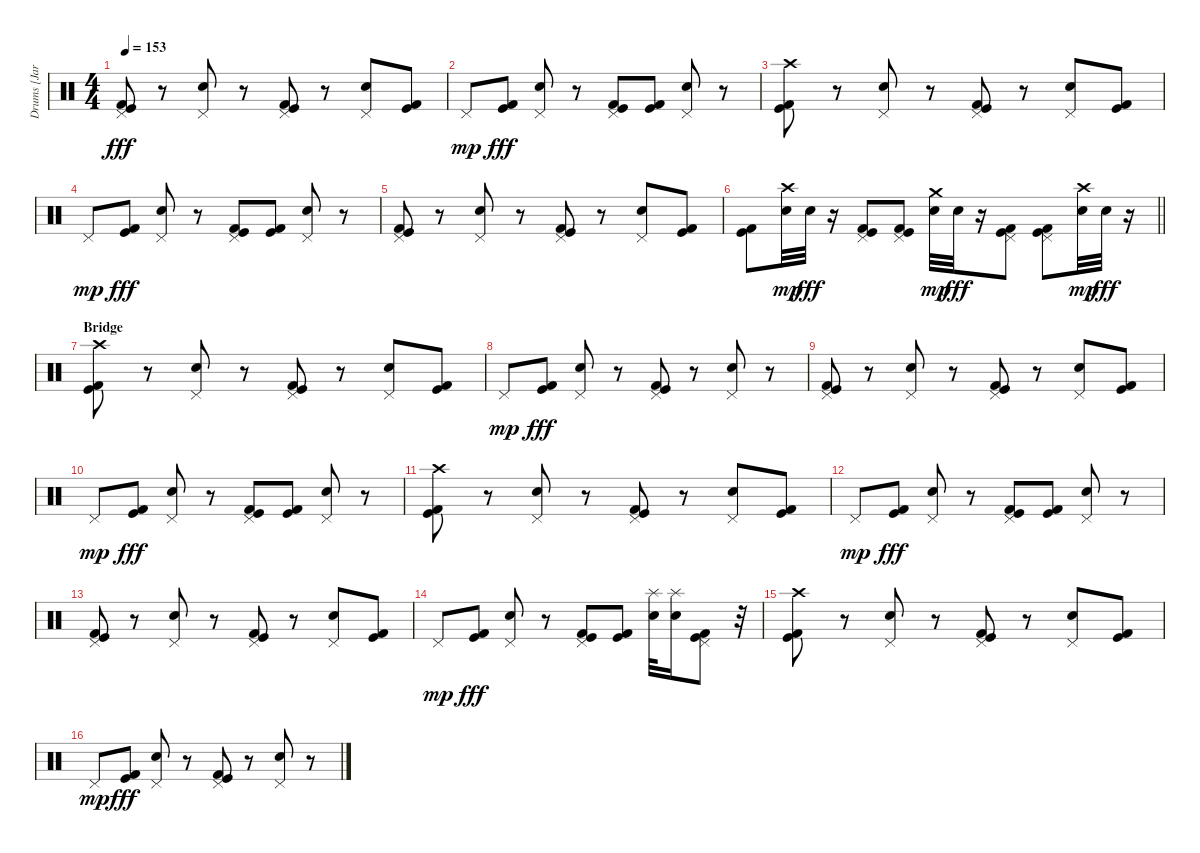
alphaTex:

\track ("Drums [Jari]" "Drums [Jar") {instrument percussion}
\staff {score}
\articulation defaults
\ts (4 4)
\tempo 153
\clef neutral
\ks c
("Kick (hit) 2" "Pedal Hi-Hat (hit)" "Kick (hit)").8{dy fff} r.8 ("Pedal Hi-Hat (hit)" "Electric Snare (hit)").8 r.8 ("Kick (hit) 2" "Pedal Hi-Hat (hit)" "Kick (hit)").8 r.8 ("Pedal Hi-Hat (hit)" "Electric Snare (hit)").8 ("Kick (hit) 2" "Kick (hit)").8 |
"Pedal Hi-Hat (hit)".8{dy mp} ("Kick (hit) 2" "Kick (hit)").8{dy fff} ("Pedal Hi-Hat (hit)" "Electric Snare (hit)").8 r.8 ("Kick (hit) 2" "Pedal Hi-Hat (hit)" "Kick (hit)").8 ("Kick (hit) 2" "Kick (hit)").8 ("Pedal Hi-Hat (hit)" "Electric Snare (hit)").8 r.8 |
("Kick (hit) 2" "Crash high (hit)" "Kick (hit)").8 r.8 ("Pedal Hi-Hat (hit)" "Electric Snare (hit)").8 r.8 ("Kick (hit) 2" "Pedal Hi-Hat (hit)" "Kick (hit)").8 r.8 ("Pedal Hi-Hat (hit)" "Electric Snare (hit)").8 ("Kick (hit) 2" "Kick (hit)").8 |
"Pedal Hi-Hat (hit)".8{dy mp} ("Kick (hit) 2" "Kick (hit)").8{dy fff} ("Pedal Hi-Hat (hit)" "Electric Snare (hit)").8 r.8 ("Kick (hit) 2" "Pedal Hi-Hat (hit)" "Kick (hit)").8 ("Kick (hit) 2" "Kick (hit)").8 ("Pedal Hi-Hat (hit)" "Electric Snare (hit)").8 r.8 |
("Kick (hit) 2" "Pedal Hi-Hat (hit)" "Kick (hit)").8 r.8 ("Pedal Hi-Hat (hit)" "Electric Snare (hit)").8 r.8 ("Kick (hit) 2" "Pedal Hi-Hat (hit)" "Kick (hit)").8 r.8 ("Pedal Hi-Hat (hit)" "Electric Snare (hit)").8 ("Kick (hit) 2" "Kick (hit)").8 |
\barLineRight lightlight
("Kick (hit) 2" "Kick (hit)").8 ("Crash high (hit)" "Electric Snare (hit)").32{dy mp} "Electric Snare (hit)".32{dy fff} r.16 ("Kick (hit) 2" "Pedal Hi-Hat (hit)" "Kick (hit)").8 ("Kick (hit) 2" "Pedal Hi-Hat (hit)" "Kick (hit)").8 ("Crash medium (hit)" "Electric Snare (hit)").32{dy mp} "Electric Snare (hit)".32{dy fff} r.16 ("Kick (hit) 2" "Pedal Hi-Hat (hit)" "Kick (hit)").8 ("Kick (hit) 2" "Pedal Hi-Hat (hit)" "Kick (hit)").8 ("Crash high (hit)" "Electric Snare (hit)").32{dy mp} "Electric Snare (hit)".32{dy fff} r.16 |
\section ("" "Bridge")
("Kick (hit) 2" "Crash high (hit)" "Kick (hit)").8 r.8 ("Pedal Hi-Hat (hit)" "Electric Snare (hit)").8 r.8 ("Kick (hit) 2" "Pedal Hi-Hat (hit)" "Kick (hit)").8 r.8 ("Pedal Hi-Hat (hit)" "Electric Snare (hit)").8 ("Kick (hit) 2" "Kick (hit)").8 |
"Pedal Hi-Hat (hit)".8{dy mp} ("Kick (hit) 2" "Kick (hit)").8{dy fff} ("Pedal Hi-Hat (hit)" "Electric Snare (hit)").8 r.8 ("Kick (hit) 2" "Pedal Hi-Hat (hit)" "Kick (hit)").8 r.8 ("Pedal Hi-Hat (hit)" "Electric Snare (hit)").8 r.8 |
("Kick (hit) 2" "Pedal Hi-Hat (hit)" "Kick (hit)").8 r.8 ("Pedal Hi-Hat (hit)" "Electric Snare (hit)").8 r.8 ("Kick (hit) 2" "Pedal Hi-Hat (hit)" "Kick (hit)").8 r.8 ("Pedal Hi-Hat (hit)" "Electric Snare (hit)").8 ("Kick (hit) 2" "Kick (hit)").8 |
"Pedal Hi-Hat (hit)".8{dy mp} ("Kick (hit) 2" "Kick (hit)").8{dy fff} ("Pedal Hi-Hat (hit)" "Electric Snare (hit)").8 r.8 ("Kick (hit) 2" "Pedal Hi-Hat (hit)" "Kick (hit)").8 ("Kick (hit) 2" "Kick (hit)").8 ("Pedal Hi-Hat (hit)" "Electric Snare (hit)").8 r.8 |
("Kick (hit) 2" "Crash high (hit)" "Kick (hit)").8 r.8 ("Pedal Hi-Hat (hit)" "Electric Snare (hit)").8 r.8 ("Kick (hit) 2" "Pedal Hi-Hat (hit)" "Kick (hit)").8 r.8 ("Pedal Hi-Hat (hit)" "Electric Snare (hit)").8 ("Kick (hit) 2" "Kick (hit)").8 |
"Pedal Hi-Hat (hit)".8{dy mp} ("Kick (hit) 2" "Kick (hit)").8{dy fff} ("Pedal Hi-Hat (hit)" "Electric Snare (hit)").8 r.8 ("Kick (hit) 2" "Pedal Hi-Hat (hit)" "Kick (hit)").8 ("Kick (hit) 2" "Kick (hit)").8 ("Pedal Hi-Hat (hit)" "Electric Snare (hit)").8 r.8 |
("Kick (hit) 2" "Pedal Hi-Hat (hit)" "Kick (hit)").8 r.8 ("Pedal Hi-Hat (hit)" "Electric Snare (hit)").8 r.8 ("Kick (hit) 2" "Pedal Hi-Hat (hit)" "Kick (hit)").8 r.8 ("Pedal Hi-Hat (hit)" "Electric Snare (hit)").8 ("Kick (hit) 2" "Kick (hit)").8 |
"Pedal Hi-Hat (hit)".8{dy mp} ("Kick (hit) 2" "Kick (hit)").8{dy fff} ("Pedal Hi-Hat (hit)" "Electric Snare (hit)").8 r.8 ("Kick (hit) 2" "Pedal Hi-Hat (hit)" "Kick (hit)").8 ("Kick (hit) 2" "Kick (hit)").8 ("Splash (hit)" "Electric Snare (hit)").32 ("Splash (hit)" "Electric Snare (hit)").16 ("Kick (hit) 2" "Pedal Hi-Hat (hit)" "Kick (hit)").8 r.32 |
("Kick (hit) 2" "Crash high (hit)" "Kick (hit)").8 r.8 ("Pedal Hi-Hat (hit)" "Electric Snare (hit)").8 r.8 ("Kick (hit) 2" "Pedal Hi-Hat (hit)" "Kick (hit)").8 r.8 ("Pedal Hi-Hat (hit)" "Electric Snare (hit)").8 ("Kick (hit) 2" "Kick (hit)").8 |
"Pedal Hi-Hat (hit)".8{dy mp} ("Kick (hit) 2" "Kick (hit)").8{dy fff} ("Pedal Hi-Hat (hit)" "Electric Snare (hit)").8 r.8 ("Kick (hit) 2" "Pedal Hi-Hat (hit)" "Kick (hit)").8 r.8 ("Pedal Hi-Hat (hit)" "Electric Snare (hit)").8 r.8
